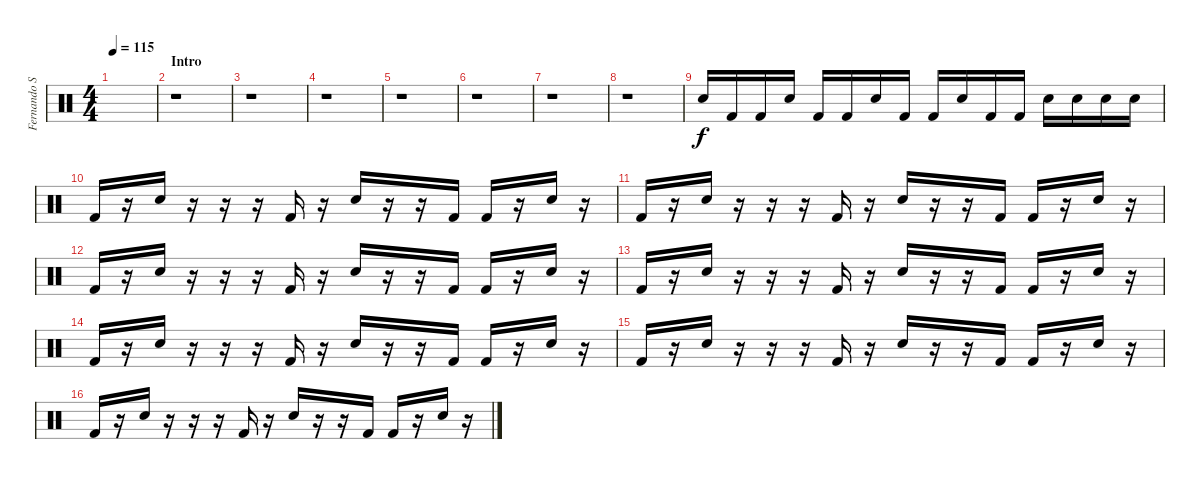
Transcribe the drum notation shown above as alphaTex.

\track ("Fernando Scarcella" "Fernando S") {instrument percussion}
\staff {score}
\articulation defaults
\ts (4 4)
\tempo 115
\clef neutral
\ks c
|
\section ("" "Intro")
r.1 |
r.1 |
r.1 |
r.1 |
r.1 |
r.1 |
r.1 |
"Snare (hit) 2".16 "Kick (hit) 2".16 "Kick (hit) 2".16 "Snare (hit) 2".16 "Kick (hit) 2".16 "Kick (hit) 2".16 "Snare (hit) 2".16 "Kick (hit) 2".16 "Kick (hit) 2".16 "Snare (hit) 2".16 "Kick (hit) 2".16 "Kick (hit) 2".16 "Snare (hit) 2".16 "Snare (hit) 2".16 "Snare (hit) 2".16 "Snare (hit) 2".16 |
"Kick (hit) 2".16 r.16 "Snare (hit) 2".16 r.16 r.16 r.16 "Kick (hit) 2".16 r.16 "Snare (hit) 2".16 r.16 r.16 "Kick (hit) 2".16 "Kick (hit) 2".16 r.16 "Snare (hit) 2".16 r.16 |
"Kick (hit) 2".16 r.16 "Snare (hit) 2".16 r.16 r.16 r.16 "Kick (hit) 2".16 r.16 "Snare (hit) 2".16 r.16 r.16 "Kick (hit) 2".16 "Kick (hit) 2".16 r.16 "Snare (hit) 2".16 r.16 |
"Kick (hit) 2".16 r.16 "Snare (hit) 2".16 r.16 r.16 r.16 "Kick (hit) 2".16 r.16 "Snare (hit) 2".16 r.16 r.16 "Kick (hit) 2".16 "Kick (hit) 2".16 r.16 "Snare (hit) 2".16 r.16 |
"Kick (hit) 2".16 r.16 "Snare (hit) 2".16 r.16 r.16 r.16 "Kick (hit) 2".16 r.16 "Snare (hit) 2".16 r.16 r.16 "Kick (hit) 2".16 "Kick (hit) 2".16 r.16 "Snare (hit) 2".16 r.16 |
"Kick (hit) 2".16 r.16 "Snare (hit) 2".16 r.16 r.16 r.16 "Kick (hit) 2".16 r.16 "Snare (hit) 2".16 r.16 r.16 "Kick (hit) 2".16 "Kick (hit) 2".16 r.16 "Snare (hit) 2".16 r.16 |
"Kick (hit) 2".16 r.16 "Snare (hit) 2".16 r.16 r.16 r.16 "Kick (hit) 2".16 r.16 "Snare (hit) 2".16 r.16 r.16 "Kick (hit) 2".16 "Kick (hit) 2".16 r.16 "Snare (hit) 2".16 r.16 |
"Kick (hit) 2".16 r.16 "Snare (hit) 2".16 r.16 r.16 r.16 "Kick (hit) 2".16 r.16 "Snare (hit) 2".16 r.16 r.16 "Kick (hit) 2".16 "Kick (hit) 2".16 r.16 "Snare (hit) 2".16 r.16
